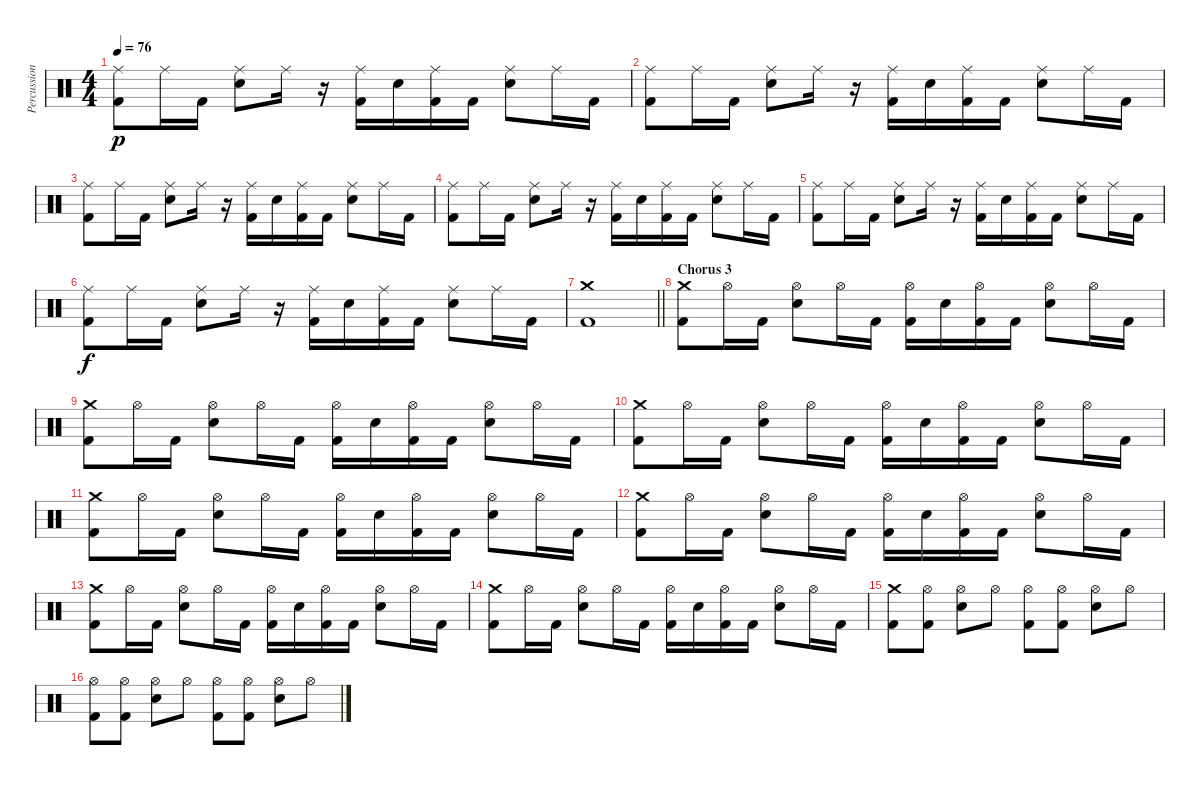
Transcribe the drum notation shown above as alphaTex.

\track ("Percussions" "Percussion") {instrument percussion}
\staff {score}
\articulation defaults
\ts (4 4)
\tempo 76
\clef neutral
\ks c
("Ride (middle)" "Kick (hit) 2").8{dy p} "Ride (middle)".16 "Kick (hit) 2".16 ("Ride (middle)" "Electric Snare (hit)").8 "Ride (middle)".16 r.16 ("Ride (middle)" "Kick (hit) 2").16 "Electric Snare (hit)".16 ("Ride (middle)" "Kick (hit) 2").16 "Kick (hit) 2".16 ("Ride (middle)" "Electric Snare (hit)").8 "Ride (middle)".16 "Kick (hit) 2".16 |
("Ride (middle)" "Kick (hit) 2").8 "Ride (middle)".16 "Kick (hit) 2".16 ("Ride (middle)" "Electric Snare (hit)").8 "Ride (middle)".16 r.16 ("Ride (middle)" "Kick (hit) 2").16 "Electric Snare (hit)".16 ("Ride (middle)" "Kick (hit) 2").16 "Kick (hit) 2".16 ("Ride (middle)" "Electric Snare (hit)").8 "Ride (middle)".16 "Kick (hit) 2".16 |
("Ride (middle)" "Kick (hit) 2").8 "Ride (middle)".16 "Kick (hit) 2".16 ("Ride (middle)" "Electric Snare (hit)").8 "Ride (middle)".16 r.16 ("Ride (middle)" "Kick (hit) 2").16 "Electric Snare (hit)".16 ("Ride (middle)" "Kick (hit) 2").16 "Kick (hit) 2".16 ("Ride (middle)" "Electric Snare (hit)").8 "Ride (middle)".16 "Kick (hit) 2".16 |
("Ride (middle)" "Kick (hit) 2").8 "Ride (middle)".16 "Kick (hit) 2".16 ("Ride (middle)" "Electric Snare (hit)").8 "Ride (middle)".16 r.16 ("Ride (middle)" "Kick (hit) 2").16 "Electric Snare (hit)".16 ("Ride (middle)" "Kick (hit) 2").16 "Kick (hit) 2".16 ("Ride (middle)" "Electric Snare (hit)").8 "Ride (middle)".16 "Kick (hit) 2".16 |
("Ride (middle)" "Kick (hit) 2").8 "Ride (middle)".16 "Kick (hit) 2".16 ("Ride (middle)" "Electric Snare (hit)").8 "Ride (middle)".16 r.16 ("Ride (middle)" "Kick (hit) 2").16 "Electric Snare (hit)".16 ("Ride (middle)" "Kick (hit) 2").16 "Kick (hit) 2".16 ("Ride (middle)" "Electric Snare (hit)").8 "Ride (middle)".16 "Kick (hit) 2".16 |
("Ride (middle)" "Kick (hit) 2").8{dy f} "Ride (middle)".16 "Kick (hit) 2".16 ("Ride (middle)" "Electric Snare (hit)").8 "Ride (middle)".16 r.16 ("Ride (middle)" "Kick (hit) 2").16 "Electric Snare (hit)".16 ("Ride (middle)" "Kick (hit) 2").16 "Kick (hit) 2".16 ("Ride (middle)" "Electric Snare (hit)").8 "Ride (middle)".16 "Kick (hit) 2".16 |
\barLineRight lightlight
("Crash medium (hit)" "Kick (hit) 2").1 |
\section ("" "Chorus 3")
("Crash medium (hit)" "Kick (hit) 2").8 "Hi-Hat (open)".16 "Kick (hit) 2".16 ("Hi-Hat (open)" "Electric Snare (hit)").8 "Hi-Hat (open)".16 "Kick (hit) 2".16 ("Hi-Hat (open)" "Kick (hit) 2").16 "Electric Snare (hit)".16 ("Hi-Hat (open)" "Kick (hit) 2").16 "Kick (hit) 2".16 ("Hi-Hat (open)" "Electric Snare (hit)").8 "Hi-Hat (open)".16 "Kick (hit) 2".16 |
("Crash medium (hit)" "Kick (hit) 2").8 "Hi-Hat (open)".16 "Kick (hit) 2".16 ("Hi-Hat (open)" "Electric Snare (hit)").8 "Hi-Hat (open)".16 "Kick (hit) 2".16 ("Hi-Hat (open)" "Kick (hit) 2").16 "Electric Snare (hit)".16 ("Hi-Hat (open)" "Kick (hit) 2").16 "Kick (hit) 2".16 ("Hi-Hat (open)" "Electric Snare (hit)").8 "Hi-Hat (open)".16 "Kick (hit) 2".16 |
("Crash medium (hit)" "Kick (hit) 2").8 "Hi-Hat (open)".16 "Kick (hit) 2".16 ("Hi-Hat (open)" "Electric Snare (hit)").8 "Hi-Hat (open)".16 "Kick (hit) 2".16 ("Hi-Hat (open)" "Kick (hit) 2").16 "Electric Snare (hit)".16 ("Hi-Hat (open)" "Kick (hit) 2").16 "Kick (hit) 2".16 ("Hi-Hat (open)" "Electric Snare (hit)").8 "Hi-Hat (open)".16 "Kick (hit) 2".16 |
("Crash medium (hit)" "Kick (hit) 2").8 "Hi-Hat (open)".16 "Kick (hit) 2".16 ("Hi-Hat (open)" "Electric Snare (hit)").8 "Hi-Hat (open)".16 "Kick (hit) 2".16 ("Hi-Hat (open)" "Kick (hit) 2").16 "Electric Snare (hit)".16 ("Hi-Hat (open)" "Kick (hit) 2").16 "Kick (hit) 2".16 ("Hi-Hat (open)" "Electric Snare (hit)").8 "Hi-Hat (open)".16 "Kick (hit) 2".16 |
("Crash medium (hit)" "Kick (hit) 2").8 "Hi-Hat (open)".16 "Kick (hit) 2".16 ("Hi-Hat (open)" "Electric Snare (hit)").8 "Hi-Hat (open)".16 "Kick (hit) 2".16 ("Hi-Hat (open)" "Kick (hit) 2").16 "Electric Snare (hit)".16 ("Hi-Hat (open)" "Kick (hit) 2").16 "Kick (hit) 2".16 ("Hi-Hat (open)" "Electric Snare (hit)").8 "Hi-Hat (open)".16 "Kick (hit) 2".16 |
("Crash medium (hit)" "Kick (hit) 2").8 "Hi-Hat (open)".16 "Kick (hit) 2".16 ("Hi-Hat (open)" "Electric Snare (hit)").8 "Hi-Hat (open)".16 "Kick (hit) 2".16 ("Hi-Hat (open)" "Kick (hit) 2").16 "Electric Snare (hit)".16 ("Hi-Hat (open)" "Kick (hit) 2").16 "Kick (hit) 2".16 ("Hi-Hat (open)" "Electric Snare (hit)").8 "Hi-Hat (open)".16 "Kick (hit) 2".16 |
("Crash medium (hit)" "Kick (hit) 2").8 "Hi-Hat (open)".16 "Kick (hit) 2".16 ("Hi-Hat (open)" "Electric Snare (hit)").8 "Hi-Hat (open)".16 "Kick (hit) 2".16 ("Hi-Hat (open)" "Kick (hit) 2").16 "Electric Snare (hit)".16 ("Hi-Hat (open)" "Kick (hit) 2").16 "Kick (hit) 2".16 ("Hi-Hat (open)" "Electric Snare (hit)").8 "Hi-Hat (open)".16 "Kick (hit) 2".16 |
("Crash medium (hit)" "Kick (hit) 2").8 ("Hi-Hat (open)" "Kick (hit) 2").8 ("Hi-Hat (open)" "Electric Snare (hit)").8 "Hi-Hat (open)".8 ("Hi-Hat (open)" "Kick (hit) 2").8 ("Hi-Hat (open)" "Kick (hit) 2").8 ("Hi-Hat (open)" "Electric Snare (hit)").8 "Hi-Hat (open)".8 |
("Hi-Hat (open)" "Kick (hit) 2").8 ("Hi-Hat (open)" "Kick (hit) 2").8 ("Hi-Hat (open)" "Electric Snare (hit)").8 "Hi-Hat (open)".8 ("Hi-Hat (open)" "Kick (hit) 2").8 ("Hi-Hat (open)" "Kick (hit) 2").8 ("Hi-Hat (open)" "Electric Snare (hit)").8 "Hi-Hat (open)".8
